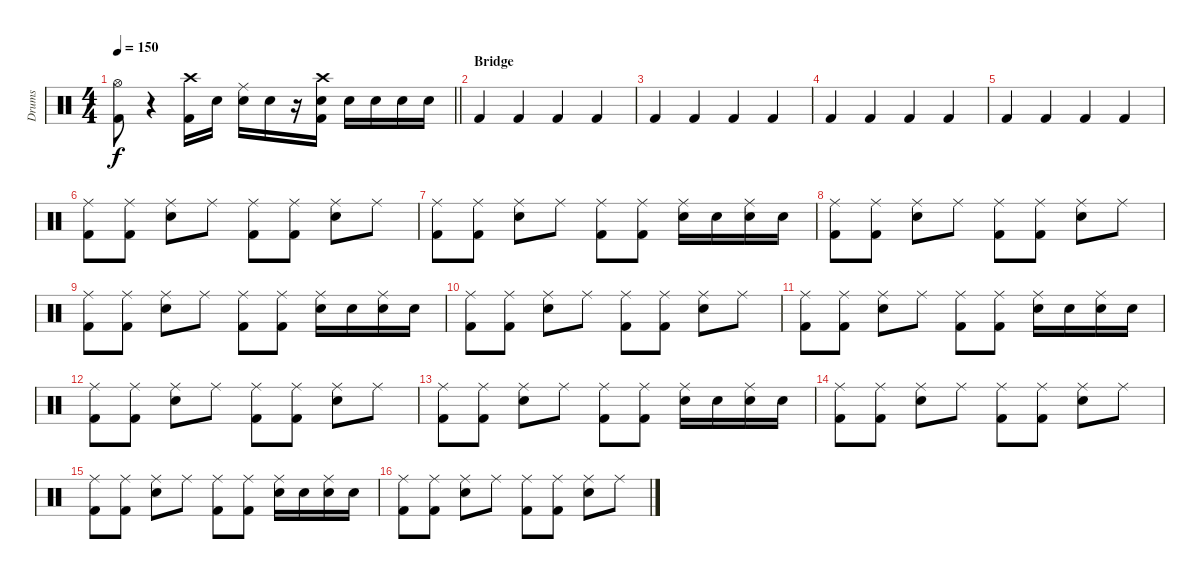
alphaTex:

\track ("Drums" "Drums") {instrument percussion}
\staff {score}
\articulation defaults
\ts (4 4)
\tempo 150
\clef neutral
\barLineRight lightlight
\ks c
("Hi-Hat (open)" "Kick (hit) 2").8{dy f} r.4 ("Crash high (hit)" "Kick (hit) 2").16 "Snare (hit) 2".16 ("Ride (middle)" "Snare (hit) 2").16 "Snare (hit) 2".16 r.16 ("Crash high (hit)" "Snare (hit) 2" "Kick (hit) 2").16 "Snare (hit) 2".16 "Snare (hit) 2".16 "Snare (hit) 2".16 "Snare (hit) 2".16 |
\section ("" "Bridge")
"Kick (hit) 2".4 "Kick (hit) 2".4 "Kick (hit) 2".4 "Kick (hit) 2".4 |
"Kick (hit) 2".4 "Kick (hit) 2".4 "Kick (hit) 2".4 "Kick (hit) 2".4 |
"Kick (hit) 2".4 "Kick (hit) 2".4 "Kick (hit) 2".4 "Kick (hit) 2".4 |
"Kick (hit) 2".4 "Kick (hit) 2".4 "Kick (hit) 2".4 "Kick (hit) 2".4 |
("Ride (middle)" "Kick (hit) 2").8 ("Ride (middle)" "Kick (hit) 2").8 ("Ride (middle)" "Snare (hit) 2").8 "Ride (middle)".8 ("Ride (middle)" "Kick (hit) 2").8 ("Ride (middle)" "Kick (hit) 2").8 ("Ride (middle)" "Snare (hit) 2").8 "Ride (middle)".8 |
("Ride (middle)" "Kick (hit) 2").8 ("Ride (middle)" "Kick (hit) 2").8 ("Ride (middle)" "Snare (hit) 2").8 "Ride (middle)".8 ("Ride (middle)" "Kick (hit) 2").8 ("Ride (middle)" "Kick (hit) 2").8 ("Ride (middle)" "Snare (hit) 2").16 "Snare (hit) 2".16 ("Ride (middle)" "Snare (hit) 2").16 "Snare (hit) 2".16 |
("Ride (middle)" "Kick (hit) 2").8 ("Ride (middle)" "Kick (hit) 2").8 ("Ride (middle)" "Snare (hit) 2").8 "Ride (middle)".8 ("Ride (middle)" "Kick (hit) 2").8 ("Ride (middle)" "Kick (hit) 2").8 ("Ride (middle)" "Snare (hit) 2").8 "Ride (middle)".8 |
("Ride (middle)" "Kick (hit) 2").8 ("Ride (middle)" "Kick (hit) 2").8 ("Ride (middle)" "Snare (hit) 2").8 "Ride (middle)".8 ("Ride (middle)" "Kick (hit) 2").8 ("Ride (middle)" "Kick (hit) 2").8 ("Ride (middle)" "Snare (hit) 2").16 "Snare (hit) 2".16 ("Ride (middle)" "Snare (hit) 2").16 "Snare (hit) 2".16 |
("Ride (middle)" "Kick (hit) 2").8 ("Ride (middle)" "Kick (hit) 2").8 ("Ride (middle)" "Snare (hit) 2").8 "Ride (middle)".8 ("Ride (middle)" "Kick (hit) 2").8 ("Ride (middle)" "Kick (hit) 2").8 ("Ride (middle)" "Snare (hit) 2").8 "Ride (middle)".8 |
("Ride (middle)" "Kick (hit) 2").8 ("Ride (middle)" "Kick (hit) 2").8 ("Ride (middle)" "Snare (hit) 2").8 "Ride (middle)".8 ("Ride (middle)" "Kick (hit) 2").8 ("Ride (middle)" "Kick (hit) 2").8 ("Ride (middle)" "Snare (hit) 2").16 "Snare (hit) 2".16 ("Ride (middle)" "Snare (hit) 2").16 "Snare (hit) 2".16 |
("Ride (middle)" "Kick (hit) 2").8 ("Ride (middle)" "Kick (hit) 2").8 ("Ride (middle)" "Snare (hit) 2").8 "Ride (middle)".8 ("Ride (middle)" "Kick (hit) 2").8 ("Ride (middle)" "Kick (hit) 2").8 ("Ride (middle)" "Snare (hit) 2").8 "Ride (middle)".8 |
("Ride (middle)" "Kick (hit) 2").8 ("Ride (middle)" "Kick (hit) 2").8 ("Ride (middle)" "Snare (hit) 2").8 "Ride (middle)".8 ("Ride (middle)" "Kick (hit) 2").8 ("Ride (middle)" "Kick (hit) 2").8 ("Ride (middle)" "Snare (hit) 2").16 "Snare (hit) 2".16 ("Ride (middle)" "Snare (hit) 2").16 "Snare (hit) 2".16 |
("Ride (middle)" "Kick (hit) 2").8 ("Ride (middle)" "Kick (hit) 2").8 ("Ride (middle)" "Snare (hit) 2").8 "Ride (middle)".8 ("Ride (middle)" "Kick (hit) 2").8 ("Ride (middle)" "Kick (hit) 2").8 ("Ride (middle)" "Snare (hit) 2").8 "Ride (middle)".8 |
("Ride (middle)" "Kick (hit) 2").8 ("Ride (middle)" "Kick (hit) 2").8 ("Ride (middle)" "Snare (hit) 2").8 "Ride (middle)".8 ("Ride (middle)" "Kick (hit) 2").8 ("Ride (middle)" "Kick (hit) 2").8 ("Ride (middle)" "Snare (hit) 2").16 "Snare (hit) 2".16 ("Ride (middle)" "Snare (hit) 2").16 "Snare (hit) 2".16 |
("Ride (middle)" "Kick (hit) 2").8 ("Ride (middle)" "Kick (hit) 2").8 ("Ride (middle)" "Snare (hit) 2").8 "Ride (middle)".8 ("Ride (middle)" "Kick (hit) 2").8 ("Ride (middle)" "Kick (hit) 2").8 ("Ride (middle)" "Snare (hit) 2").8 "Ride (middle)".8
